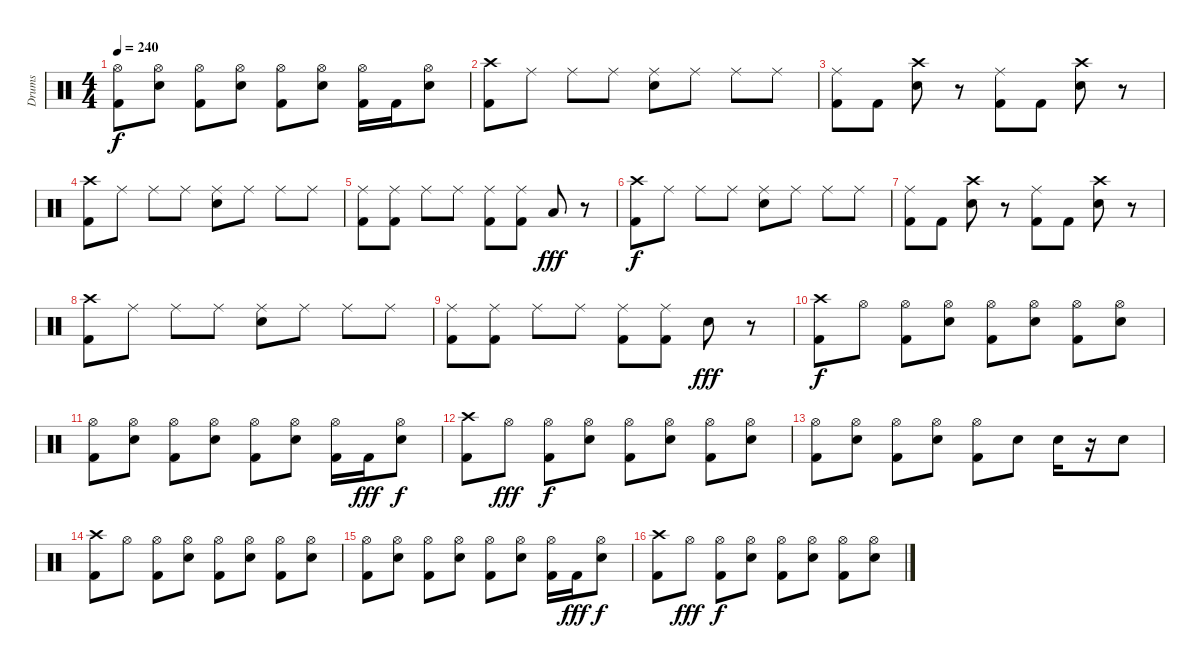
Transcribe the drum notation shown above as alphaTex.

\track ("Drums" "Drums") {instrument percussion}
\staff {score}
\articulation defaults
\ts (4 4)
\tempo 240
\clef neutral
\ks c
("Hi-Hat (open)" "Kick (hit) 2").8{dy f} ("Hi-Hat (open)" "Snare (hit) 2").8 ("Hi-Hat (open)" "Kick (hit) 2").8 ("Hi-Hat (open)" "Snare (hit) 2").8 ("Hi-Hat (open)" "Kick (hit) 2").8 ("Hi-Hat (open)" "Snare (hit) 2").8 ("Hi-Hat (open)" "Kick (hit) 2").16 "Kick (hit) 2".16 ("Hi-Hat (open)" "Snare (hit) 2").8 |
("Crash high (hit)" "Kick (hit) 2").8 "Ride (middle)".8 "Ride (middle)".8 "Ride (middle)".8 ("Ride (middle)" "Snare (hit) 2").8 "Ride (middle)".8 "Ride (middle)".8 "Ride (middle)".8 |
("Ride (middle)" "Kick (hit) 2").8 "Kick (hit) 2".8 ("Crash high (hit)" "Snare (hit) 2").8 r.8 ("Ride (middle)" "Kick (hit) 2").8 "Kick (hit) 2".8 ("Crash high (hit)" "Snare (hit) 2").8 r.8 |
("Crash high (hit)" "Kick (hit) 2").8 "Ride (middle)".8 "Ride (middle)".8 "Ride (middle)".8 ("Ride (middle)" "Snare (hit) 2").8 "Ride (middle)".8 "Ride (middle)".8 "Ride (middle)".8 |
("Ride (middle)" "Kick (hit) 2").8 ("Ride (middle)" "Kick (hit) 2").8 "Ride (middle)".8 "Ride (middle)".8 ("Ride (middle)" "Kick (hit) 2").8 ("Ride (middle)" "Kick (hit) 2").8 "Low Floor Tom (hit)".8{dy fff} r.8 |
("Crash high (hit)" "Kick (hit) 2").8{dy f} "Ride (middle)".8 "Ride (middle)".8 "Ride (middle)".8 ("Ride (middle)" "Snare (hit) 2").8 "Ride (middle)".8 "Ride (middle)".8 "Ride (middle)".8 |
("Ride (middle)" "Kick (hit) 2").8 "Kick (hit) 2".8 ("Crash high (hit)" "Snare (hit) 2").8 r.8 ("Ride (middle)" "Kick (hit) 2").8 "Kick (hit) 2".8 ("Crash high (hit)" "Snare (hit) 2").8 r.8 |
("Crash high (hit)" "Kick (hit) 2").8 "Ride (middle)".8 "Ride (middle)".8 "Ride (middle)".8 ("Ride (middle)" "Snare (hit) 2").8 "Ride (middle)".8 "Ride (middle)".8 "Ride (middle)".8 |
("Ride (middle)" "Kick (hit) 2").8 ("Ride (middle)" "Kick (hit) 2").8 "Ride (middle)".8 "Ride (middle)".8 ("Ride (middle)" "Kick (hit) 2").8 ("Ride (middle)" "Kick (hit) 2").8 "Snare (hit) 2".8{dy fff} r.8 |
("Crash high (hit)" "Kick (hit) 2").8{dy f} "Hi-Hat (open)".8 ("Hi-Hat (open)" "Kick (hit) 2").8 ("Hi-Hat (open)" "Snare (hit) 2").8 ("Hi-Hat (open)" "Kick (hit) 2").8 ("Hi-Hat (open)" "Snare (hit) 2").8 ("Hi-Hat (open)" "Kick (hit) 2").8 ("Hi-Hat (open)" "Snare (hit) 2").8 |
("Hi-Hat (open)" "Kick (hit) 2").8 ("Hi-Hat (open)" "Snare (hit) 2").8 ("Hi-Hat (open)" "Kick (hit) 2").8 ("Hi-Hat (open)" "Snare (hit) 2").8 ("Hi-Hat (open)" "Kick (hit) 2").8 ("Hi-Hat (open)" "Snare (hit) 2").8 ("Hi-Hat (open)" "Kick (hit) 2").16 "Kick (hit) 2".16{dy fff} ("Hi-Hat (open)" "Snare (hit) 2").8{dy f} |
("Crash high (hit)" "Kick (hit) 2").8 "Hi-Hat (open)".8{dy fff} ("Hi-Hat (open)" "Kick (hit) 2").8{dy f} ("Hi-Hat (open)" "Snare (hit) 2").8 ("Hi-Hat (open)" "Kick (hit) 2").8 ("Hi-Hat (open)" "Snare (hit) 2").8 ("Hi-Hat (open)" "Kick (hit) 2").8 ("Hi-Hat (open)" "Snare (hit) 2").8 |
("Hi-Hat (open)" "Kick (hit) 2").8 ("Hi-Hat (open)" "Snare (hit) 2").8 ("Hi-Hat (open)" "Kick (hit) 2").8 ("Hi-Hat (open)" "Snare (hit) 2").8 ("Hi-Hat (open)" "Kick (hit) 2").8 "Snare (hit) 2".8 "Snare (hit) 2".16 r.16 "Snare (hit) 2".8 |
("Crash high (hit)" "Kick (hit) 2").8 "Hi-Hat (open)".8 ("Hi-Hat (open)" "Kick (hit) 2").8 ("Hi-Hat (open)" "Snare (hit) 2").8 ("Hi-Hat (open)" "Kick (hit) 2").8 ("Hi-Hat (open)" "Snare (hit) 2").8 ("Hi-Hat (open)" "Kick (hit) 2").8 ("Hi-Hat (open)" "Snare (hit) 2").8 |
("Hi-Hat (open)" "Kick (hit) 2").8 ("Hi-Hat (open)" "Snare (hit) 2").8 ("Hi-Hat (open)" "Kick (hit) 2").8 ("Hi-Hat (open)" "Snare (hit) 2").8 ("Hi-Hat (open)" "Kick (hit) 2").8 ("Hi-Hat (open)" "Snare (hit) 2").8 ("Hi-Hat (open)" "Kick (hit) 2").16 "Kick (hit) 2".16{dy fff} ("Hi-Hat (open)" "Snare (hit) 2").8{dy f} |
("Crash high (hit)" "Kick (hit) 2").8 "Hi-Hat (open)".8{dy fff} ("Hi-Hat (open)" "Kick (hit) 2").8{dy f} ("Hi-Hat (open)" "Snare (hit) 2").8 ("Hi-Hat (open)" "Kick (hit) 2").8 ("Hi-Hat (open)" "Snare (hit) 2").8 ("Hi-Hat (open)" "Kick (hit) 2").8 ("Hi-Hat (open)" "Snare (hit) 2").8
